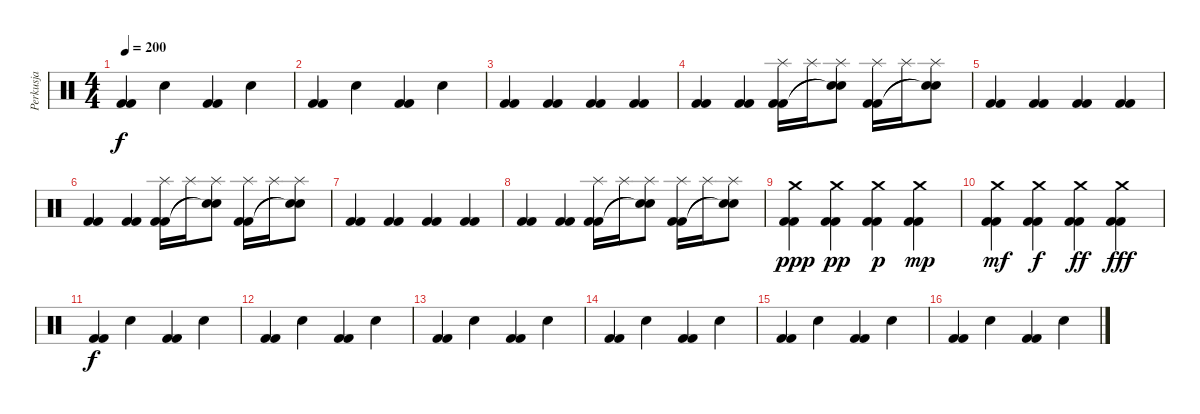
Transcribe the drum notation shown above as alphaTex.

\track ("Perkusja" "Perkusja") {instrument percussion}
\staff {score}
\articulation defaults
\ts (4 4)
\tempo 200
\clef neutral
\ks c
("Kick (hit) 2" "Kick (hit) 2").4{dy f} "Snare (hit) 2".4 ("Kick (hit) 2" "Kick (hit) 2").4 "Snare (hit) 2".4 |
("Kick (hit) 2" "Kick (hit) 2").4 "Snare (hit) 2".4 ("Kick (hit) 2" "Kick (hit) 2").4 "Snare (hit) 2".4 |
("Kick (hit) 2" "Kick (hit) 2").4 ("Kick (hit) 2" "Kick (hit) 2").4 ("Kick (hit) 2" "Kick (hit) 2").4 ("Kick (hit) 2" "Kick (hit) 2").4 |
("Kick (hit) 2" "Kick (hit) 2").4 ("Kick (hit) 2" "Kick (hit) 2").4 ("Splash (hit)" "Kick (hit) 2" "Kick (hit) 2").16 "Splash (hit)".16 ("Splash (hit)" "Snare (hit)"{t} "Snare (hit)"{t}).8 ("Splash (hit)" "Kick (hit) 2" "Kick (hit) 2").16 "Splash (hit)".16 ("Splash (hit)" "Snare (hit)"{t} "Snare (hit)"{t}).8 |
("Kick (hit) 2" "Kick (hit) 2").4 ("Kick (hit) 2" "Kick (hit) 2").4 ("Kick (hit) 2" "Kick (hit) 2").4 ("Kick (hit) 2" "Kick (hit) 2").4 |
("Kick (hit) 2" "Kick (hit) 2").4 ("Kick (hit) 2" "Kick (hit) 2").4 ("Splash (hit)" "Kick (hit) 2" "Kick (hit) 2").16 "Splash (hit)".16 ("Splash (hit)" "Snare (hit)"{t} "Snare (hit)"{t}).8 ("Splash (hit)" "Kick (hit) 2" "Kick (hit) 2").16 "Splash (hit)".16 ("Splash (hit)" "Snare (hit)"{t} "Snare (hit)"{t}).8 |
("Kick (hit) 2" "Kick (hit) 2").4 ("Kick (hit) 2" "Kick (hit) 2").4 ("Kick (hit) 2" "Kick (hit) 2").4 ("Kick (hit) 2" "Kick (hit) 2").4 |
("Kick (hit) 2" "Kick (hit) 2").4 ("Kick (hit) 2" "Kick (hit) 2").4 ("Splash (hit)" "Kick (hit) 2" "Kick (hit) 2").16 "Splash (hit)".16 ("Splash (hit)" "Snare (hit)"{t} "Snare (hit)"{t}).8 ("Splash (hit)" "Kick (hit) 2" "Kick (hit) 2").16 "Splash (hit)".16 ("Splash (hit)" "Snare (hit)"{t} "Snare (hit)"{t}).8 |
("Crash medium (hit)" "Kick (hit) 2" "Kick (hit) 2").4{dy ppp} ("Crash medium (hit)" "Kick (hit) 2" "Kick (hit) 2").4{dy pp} ("Crash medium (hit)" "Kick (hit) 2" "Kick (hit) 2").4{dy p} ("Crash medium (hit)" "Kick (hit) 2" "Kick (hit) 2").4{dy mp} |
("Crash medium (hit)" "Kick (hit) 2" "Kick (hit) 2").4{dy mf} ("Crash medium (hit)" "Kick (hit) 2" "Kick (hit) 2").4{dy f} ("Crash medium (hit)" "Kick (hit) 2" "Kick (hit) 2").4{dy ff} ("Crash medium (hit)" "Kick (hit) 2" "Kick (hit) 2").4{dy fff} |
("Kick (hit) 2" "Kick (hit) 2").4{dy f} "Snare (hit) 2".4 ("Kick (hit) 2" "Kick (hit) 2").4 "Snare (hit) 2".4 |
("Kick (hit) 2" "Kick (hit) 2").4 "Snare (hit) 2".4 ("Kick (hit) 2" "Kick (hit) 2").4 "Snare (hit) 2".4 |
("Kick (hit) 2" "Kick (hit) 2").4 "Snare (hit) 2".4 ("Kick (hit) 2" "Kick (hit) 2").4 "Snare (hit) 2".4 |
("Kick (hit) 2" "Kick (hit) 2").4 "Snare (hit) 2".4 ("Kick (hit) 2" "Kick (hit) 2").4 "Snare (hit) 2".4 |
("Kick (hit) 2" "Kick (hit) 2").4 "Snare (hit) 2".4 ("Kick (hit) 2" "Kick (hit) 2").4 "Snare (hit) 2".4 |
("Kick (hit) 2" "Kick (hit) 2").4 "Snare (hit) 2".4 ("Kick (hit) 2" "Kick (hit) 2").4 "Snare (hit) 2".4
